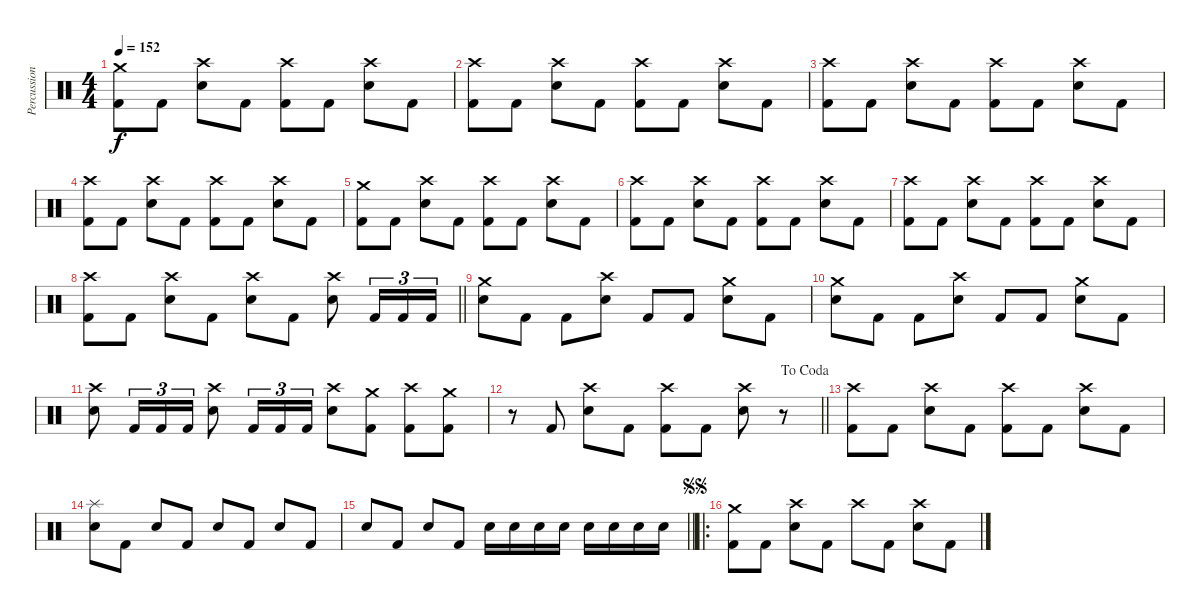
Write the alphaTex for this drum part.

\track ("Percussion" "Percussion") {instrument percussion}
\staff {score}
\articulation defaults
\ts (4 4)
\tempo 152
\clef neutral
\ks c
("Crash medium (hit)" "Kick (hit) 2").8{dy f} "Kick (hit) 2".8 ("Crash high (hit)" "Snare (hit) 2").8 "Kick (hit) 2".8 ("Crash high (hit)" "Kick (hit) 2").8 "Kick (hit) 2".8 ("Crash high (hit)" "Snare (hit) 2").8 "Kick (hit) 2".8 |
("Crash high (hit)" "Kick (hit) 2").8 "Kick (hit) 2".8 ("Crash high (hit)" "Snare (hit) 2").8 "Kick (hit) 2".8 ("Crash high (hit)" "Kick (hit) 2").8 "Kick (hit) 2".8 ("Crash high (hit)" "Snare (hit) 2").8 "Kick (hit) 2".8 |
("Crash high (hit)" "Kick (hit) 2").8 "Kick (hit) 2".8 ("Crash high (hit)" "Snare (hit) 2").8 "Kick (hit) 2".8 ("Crash high (hit)" "Kick (hit) 2").8 "Kick (hit) 2".8 ("Crash high (hit)" "Snare (hit) 2").8 "Kick (hit) 2".8 |
("Crash high (hit)" "Kick (hit) 2").8 "Kick (hit) 2".8 ("Crash high (hit)" "Snare (hit) 2").8 "Kick (hit) 2".8 ("Crash high (hit)" "Kick (hit) 2").8 "Kick (hit) 2".8 ("Crash high (hit)" "Snare (hit) 2").8 "Kick (hit) 2".8 |
("Crash medium (hit)" "Kick (hit) 2").8 "Kick (hit) 2".8 ("Crash high (hit)" "Snare (hit) 2").8 "Kick (hit) 2".8 ("Crash high (hit)" "Kick (hit) 2").8 "Kick (hit) 2".8 ("Crash high (hit)" "Snare (hit) 2").8 "Kick (hit) 2".8 |
("Crash high (hit)" "Kick (hit) 2").8 "Kick (hit) 2".8 ("Crash high (hit)" "Snare (hit) 2").8 "Kick (hit) 2".8 ("Crash high (hit)" "Kick (hit) 2").8 "Kick (hit) 2".8 ("Crash high (hit)" "Snare (hit) 2").8 "Kick (hit) 2".8 |
("Crash high (hit)" "Kick (hit) 2").8 "Kick (hit) 2".8 ("Crash high (hit)" "Snare (hit) 2").8 "Kick (hit) 2".8 ("Crash high (hit)" "Kick (hit) 2").8 "Kick (hit) 2".8 ("Crash high (hit)" "Snare (hit) 2").8 "Kick (hit) 2".8 |
\barLineRight lightlight
("Crash high (hit)" "Kick (hit) 2").8 "Kick (hit) 2".8 ("Crash high (hit)" "Snare (hit) 2").8 "Kick (hit) 2".8 ("Crash high (hit)" "Snare (hit) 2").8 "Kick (hit) 2".8 ("Crash high (hit)" "Snare (hit) 2").8 "Kick (hit) 2".16{tu (3 2)} "Kick (hit) 2".16{tu (3 2)} "Kick (hit) 2".16{tu (3 2)} |
("Crash medium (hit)" "Snare (hit) 2").8 "Kick (hit) 2".8 "Kick (hit) 2".8 ("Crash high (hit)" "Snare (hit) 2").8 "Kick (hit) 2".8 "Kick (hit) 2".8 ("Crash medium (hit)" "Snare (hit) 2").8 "Kick (hit) 2".8 |
("Crash medium (hit)" "Snare (hit) 2").8 "Kick (hit) 2".8 "Kick (hit) 2".8 ("Crash high (hit)" "Snare (hit) 2").8 "Kick (hit) 2".8 "Kick (hit) 2".8 ("Crash medium (hit)" "Snare (hit) 2").8 "Kick (hit) 2".8 |
("Crash high (hit)" "Snare (hit) 2").8 "Kick (hit) 2".16{tu (3 2)} "Kick (hit) 2".16{tu (3 2)} "Kick (hit) 2".16{tu (3 2)} ("Crash high (hit)" "Snare (hit) 2").8 "Kick (hit) 2".16{tu (3 2)} "Kick (hit) 2".16{tu (3 2)} "Kick (hit) 2".16{tu (3 2)} ("Crash high (hit)" "Snare (hit) 2").8 ("Crash medium (hit)" "Kick (hit) 2").8 ("Crash high (hit)" "Kick (hit) 2").8 ("Crash medium (hit)" "Kick (hit) 2").8 |
\jump dacoda
\barLineRight lightlight
r.8 "Kick (hit) 2".8 ("Crash high (hit)" "Snare (hit) 2").8 "Kick (hit) 2".8 ("Crash high (hit)" "Kick (hit) 2").8 "Kick (hit) 2".8 ("Crash high (hit)" "Snare (hit) 2").8 r.8 |
("Crash high (hit)" "Kick (hit) 2").8 "Kick (hit) 2".8 ("Crash high (hit)" "Snare (hit) 2").8 "Kick (hit) 2".8 ("Crash high (hit)" "Kick (hit) 2").8 "Kick (hit) 2".8 ("Crash high (hit)" "Snare (hit) 2").8 "Kick (hit) 2".8 |
("Splash (hit)" "Snare (hit) 2").8 "Kick (hit) 2".8 "Snare (hit) 2".8 "Kick (hit) 2".8 "Snare (hit) 2".8 "Kick (hit) 2".8 "Snare (hit) 2".8 "Kick (hit) 2".8 |
\barLineRight lightlight "Snare (hit) 2".8 "Kick (hit) 2".8 "Snare (hit) 2".8 "Kick (hit) 2".8 "Snare (hit) 2".16 "Snare (hit) 2".16 "Snare (hit) 2".16 "Snare (hit) 2".16 "Snare (hit) 2".16 "Snare (hit) 2".16 "Snare (hit) 2".16 "Snare (hit) 2".16
|
\ro
\jump segnosegno
("Crash medium (hit)" "Kick (hit) 2").8 "Kick (hit) 2".8 ("Crash high (hit)" "Snare (hit) 2").8 "Kick (hit) 2".8 "Crash high (hit)".8 "Kick (hit) 2".8 ("Crash high (hit)" "Snare (hit) 2").8 "Kick (hit) 2".8
